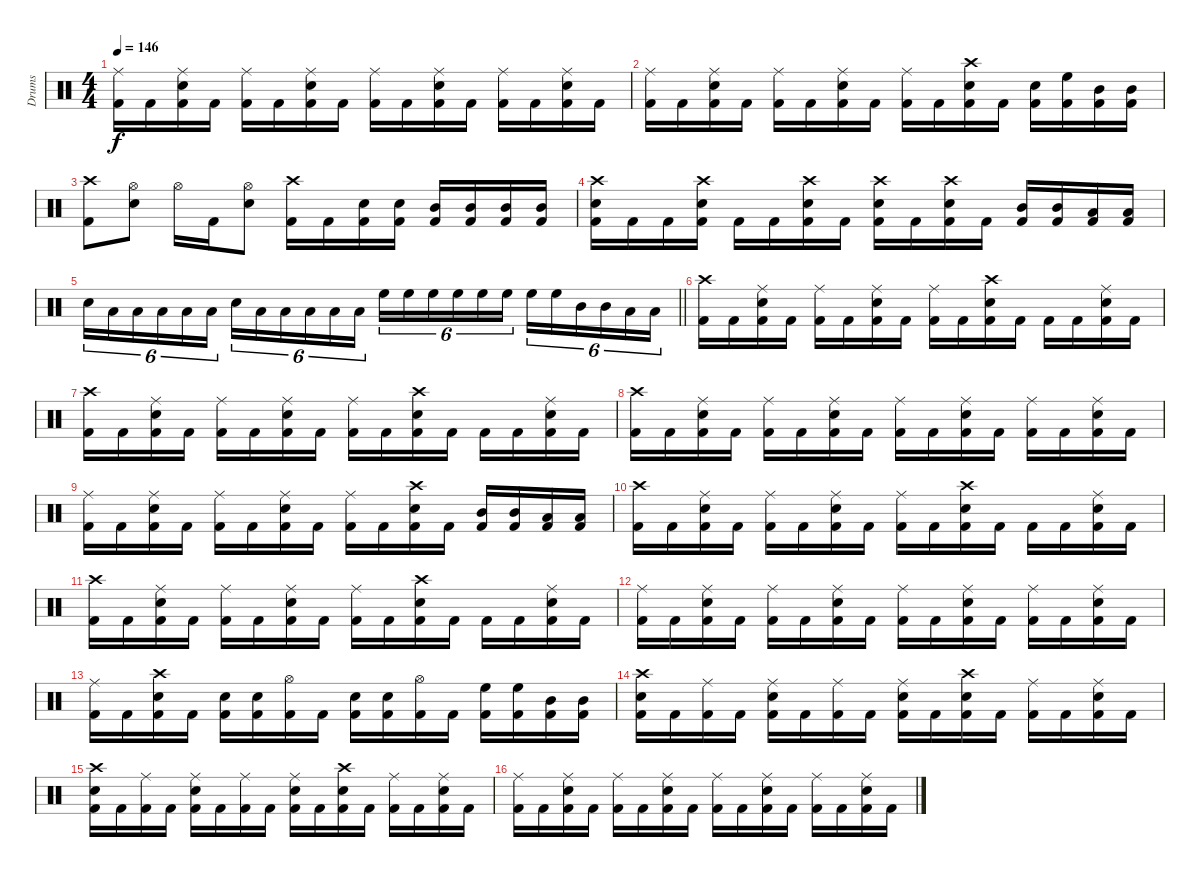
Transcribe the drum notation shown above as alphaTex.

\track ("Drums" "Drums") {instrument percussion}
\staff {score}
\articulation defaults
\ts (4 4)
\tempo 146
\clef neutral
\ks c
("Ride (middle)" "Kick (hit) 2").16{dy f} "Kick (hit) 2".16 ("Ride (middle)" "Snare (hit) 2" "Kick (hit) 2").16 "Kick (hit) 2".16 ("Ride (middle)" "Kick (hit) 2").16 "Kick (hit) 2".16 ("Ride (middle)" "Snare (hit) 2" "Kick (hit) 2").16 "Kick (hit) 2".16 ("Ride (middle)" "Kick (hit) 2").16 "Kick (hit) 2".16 ("Ride (middle)" "Snare (hit) 2" "Kick (hit) 2").16 "Kick (hit) 2".16 ("Ride (middle)" "Kick (hit) 2").16 "Kick (hit) 2".16 ("Ride (middle)" "Snare (hit) 2" "Kick (hit) 2").16 "Kick (hit) 2".16 |
("Ride (middle)" "Kick (hit) 2").16 "Kick (hit) 2".16 ("Ride (middle)" "Snare (hit) 2" "Kick (hit) 2").16 "Kick (hit) 2".16 ("Ride (middle)" "Kick (hit) 2").16 "Kick (hit) 2".16 ("Ride (middle)" "Snare (hit) 2" "Kick (hit) 2").16 "Kick (hit) 2".16 ("Ride (middle)" "Kick (hit) 2").16 "Kick (hit) 2".16 ("Crash high (hit)" "Snare (hit) 2" "Kick (hit) 2").16 "Kick (hit) 2".16 ("Snare (hit) 2" "Kick (hit) 2").16 ("High Floor Tom (hit)" "Kick (hit) 2").16 ("Mid Tom (hit)" "Kick (hit) 2").16 ("Mid Tom (hit)" "Kick (hit) 2").16 |
("Crash high (hit)" "Kick (hit) 2").8 ("Hi-Hat (open)" "Snare (hit) 2").8 "Hi-Hat (open)".16 "Kick (hit) 2".16 ("Hi-Hat (open)" "Snare (hit) 2").8 ("Crash high (hit)" "Kick (hit) 2").16 "Kick (hit) 2".16 ("Snare (hit) 2" "Kick (hit) 2").16 ("Snare (hit) 2" "Kick (hit) 2").16 ("Mid Tom (hit)" "Kick (hit) 2").16 ("Mid Tom (hit)" "Kick (hit) 2").16 ("Mid Tom (hit)" "Kick (hit) 2").16 ("Mid Tom (hit)" "Kick (hit) 2").16 |
("Crash high (hit)" "Snare (hit) 2" "Kick (hit) 2").16 "Kick (hit) 2".16 "Kick (hit) 2".16 ("Crash high (hit)" "Snare (hit) 2" "Kick (hit) 2").16 "Kick (hit) 2".16 "Kick (hit) 2".16 ("Crash high (hit)" "Snare (hit) 2" "Kick (hit) 2").16 "Kick (hit) 2".16 ("Crash high (hit)" "Snare (hit) 2" "Kick (hit) 2").16 "Kick (hit) 2".16 ("Crash high (hit)" "Snare (hit) 2" "Kick (hit) 2").16 "Kick (hit) 2".16 ("Mid Tom (hit)" "Kick (hit) 2").16 ("Mid Tom (hit)" "Kick (hit) 2").16 ("Low Floor Tom (hit)" "Kick (hit) 2").16 ("Low Floor Tom (hit)" "Kick (hit) 2").16 |
\barLineRight lightlight "Snare (hit) 2".16{tu (6 4)} "Low Floor Tom (hit)".16{tu (6 4)} "Low Floor Tom (hit)".16{tu (6 4)} "Low Floor Tom (hit)".16{tu (6 4)} "Low Floor Tom (hit)".16{tu (6 4)} "Low Floor Tom (hit)".16{tu (6 4)} "Snare (hit) 2".16{tu (6 4)} "Low Floor Tom (hit)".16{tu (6 4)} "Low Floor Tom (hit)".16{tu (6 4)} "Low Floor Tom (hit)".16{tu (6 4)} "Low Floor Tom (hit)".16{tu (6 4)} "Low Floor Tom (hit)".16{tu (6 4)} "High Floor Tom (hit)".16{tu (6 4)} "High Floor Tom (hit)".16{tu (6 4)} "High Floor Tom (hit)".16{tu (6 4)} "High Floor Tom (hit)".16{tu (6 4)} "High Floor Tom (hit)".16{tu (6 4)} "High Floor Tom (hit)".16{tu (6 4)} "High Floor Tom (hit)".16{tu (6 4)} "High Floor Tom (hit)".16{tu (6 4)} "Mid Tom (hit)".16{tu (6 4)} "Mid Tom (hit)".16{tu (6 4)} "Low Floor Tom (hit)".16{tu (6 4)} "Low Floor Tom (hit)".16{tu (6 4)}
|
("Crash high (hit)" "Kick (hit) 2").16 "Kick (hit) 2".16 ("Ride (middle)" "Snare (hit) 2" "Kick (hit) 2").16 "Kick (hit) 2".16 ("Ride (middle)" "Kick (hit) 2").16 "Kick (hit) 2".16 ("Ride (middle)" "Snare (hit) 2" "Kick (hit) 2").16 "Kick (hit) 2".16 ("Ride (middle)" "Kick (hit) 2").16 "Kick (hit) 2".16 ("Crash high (hit)" "Snare (hit) 2" "Kick (hit) 2").16 "Kick (hit) 2".16 "Kick (hit) 2".16 "Kick (hit) 2".16 ("Ride (middle)" "Snare (hit) 2" "Kick (hit) 2").16 "Kick (hit) 2".16 |
("Crash high (hit)" "Kick (hit) 2").16 "Kick (hit) 2".16 ("Ride (middle)" "Snare (hit) 2" "Kick (hit) 2").16 "Kick (hit) 2".16 ("Ride (middle)" "Kick (hit) 2").16 "Kick (hit) 2".16 ("Ride (middle)" "Snare (hit) 2" "Kick (hit) 2").16 "Kick (hit) 2".16 ("Ride (middle)" "Kick (hit) 2").16 "Kick (hit) 2".16 ("Crash high (hit)" "Snare (hit) 2" "Kick (hit) 2").16 "Kick (hit) 2".16 "Kick (hit) 2".16 "Kick (hit) 2".16 ("Ride (middle)" "Snare (hit) 2" "Kick (hit) 2").16 "Kick (hit) 2".16 |
("Crash high (hit)" "Kick (hit) 2").16 "Kick (hit) 2".16 ("Ride (middle)" "Snare (hit) 2" "Kick (hit) 2").16 "Kick (hit) 2".16 ("Ride (middle)" "Kick (hit) 2").16 "Kick (hit) 2".16 ("Ride (middle)" "Snare (hit) 2" "Kick (hit) 2").16 "Kick (hit) 2".16 ("Ride (middle)" "Kick (hit) 2").16 "Kick (hit) 2".16 ("Ride (middle)" "Snare (hit) 2" "Kick (hit) 2").16 "Kick (hit) 2".16 ("Ride (middle)" "Kick (hit) 2").16 "Kick (hit) 2".16 ("Ride (middle)" "Snare (hit) 2" "Kick (hit) 2").16 "Kick (hit) 2".16 |
("Ride (middle)" "Kick (hit) 2").16 "Kick (hit) 2".16 ("Ride (middle)" "Snare (hit) 2" "Kick (hit) 2").16 "Kick (hit) 2".16 ("Ride (middle)" "Kick (hit) 2").16 "Kick (hit) 2".16 ("Ride (middle)" "Snare (hit) 2" "Kick (hit) 2").16 "Kick (hit) 2".16 ("Ride (middle)" "Kick (hit) 2").16 "Kick (hit) 2".16 ("Crash high (hit)" "Snare (hit) 2" "Kick (hit) 2").16 "Kick (hit) 2".16 ("Mid Tom (hit)" "Kick (hit) 2").16 ("Mid Tom (hit)" "Kick (hit) 2").16 ("Low Floor Tom (hit)" "Kick (hit) 2").16 ("Low Floor Tom (hit)" "Kick (hit) 2").16 |
("Crash high (hit)" "Kick (hit) 2").16 "Kick (hit) 2".16 ("Ride (middle)" "Snare (hit) 2" "Kick (hit) 2").16 "Kick (hit) 2".16 ("Ride (middle)" "Kick (hit) 2").16 "Kick (hit) 2".16 ("Ride (middle)" "Snare (hit) 2" "Kick (hit) 2").16 "Kick (hit) 2".16 ("Ride (middle)" "Kick (hit) 2").16 "Kick (hit) 2".16 ("Crash high (hit)" "Snare (hit) 2" "Kick (hit) 2").16 "Kick (hit) 2".16 "Kick (hit) 2".16 "Kick (hit) 2".16 ("Ride (middle)" "Snare (hit) 2" "Kick (hit) 2").16 "Kick (hit) 2".16 |
("Crash high (hit)" "Kick (hit) 2").16 "Kick (hit) 2".16 ("Ride (middle)" "Snare (hit) 2" "Kick (hit) 2").16 "Kick (hit) 2".16 ("Ride (middle)" "Kick (hit) 2").16 "Kick (hit) 2".16 ("Ride (middle)" "Snare (hit) 2" "Kick (hit) 2").16 "Kick (hit) 2".16 ("Ride (middle)" "Kick (hit) 2").16 "Kick (hit) 2".16 ("Crash high (hit)" "Snare (hit) 2" "Kick (hit) 2").16 "Kick (hit) 2".16 "Kick (hit) 2".16 "Kick (hit) 2".16 ("Ride (middle)" "Snare (hit) 2" "Kick (hit) 2").16 "Kick (hit) 2".16 |
("Ride (middle)" "Kick (hit) 2").16 "Kick (hit) 2".16 ("Ride (middle)" "Snare (hit) 2" "Kick (hit) 2").16 "Kick (hit) 2".16 ("Ride (middle)" "Kick (hit) 2").16 "Kick (hit) 2".16 ("Ride (middle)" "Snare (hit) 2" "Kick (hit) 2").16 "Kick (hit) 2".16 ("Ride (middle)" "Kick (hit) 2").16 "Kick (hit) 2".16 ("Ride (middle)" "Snare (hit) 2" "Kick (hit) 2").16 "Kick (hit) 2".16 ("Ride (middle)" "Kick (hit) 2").16 "Kick (hit) 2".16 ("Ride (middle)" "Snare (hit) 2" "Kick (hit) 2").16 "Kick (hit) 2".16 |
("Ride (middle)" "Kick (hit) 2").16 "Kick (hit) 2".16 ("Crash high (hit)" "Snare (hit) 2" "Kick (hit) 2").16 "Kick (hit) 2".16 ("Snare (hit) 2" "Kick (hit) 2").16 ("Snare (hit) 2" "Kick (hit) 2").16 ("Hi-Hat (open)" "Kick (hit) 2").16 "Kick (hit) 2".16 ("Snare (hit) 2" "Kick (hit) 2").16 ("Snare (hit) 2" "Kick (hit) 2").16 ("Hi-Hat (open)" "Kick (hit) 2").16 "Kick (hit) 2".16 ("High Floor Tom (hit)" "Kick (hit) 2").16 ("High Floor Tom (hit)" "Kick (hit) 2").16 ("Mid Tom (hit)" "Kick (hit) 2").16 ("Mid Tom (hit)" "Kick (hit) 2").16 |
("Crash high (hit)" "Snare (hit) 2" "Kick (hit) 2").16 "Kick (hit) 2".16 ("Ride (middle)" "Kick (hit) 2").16 "Kick (hit) 2".16 ("Ride (middle)" "Snare (hit) 2" "Kick (hit) 2").16 "Kick (hit) 2".16 ("Ride (middle)" "Kick (hit) 2").16 "Kick (hit) 2".16 ("Ride (middle)" "Snare (hit) 2" "Kick (hit) 2").16 "Kick (hit) 2".16 ("Crash high (hit)" "Snare (hit) 2" "Kick (hit) 2").16 "Kick (hit) 2".16 ("Ride (middle)" "Kick (hit) 2").16 "Kick (hit) 2".16 ("Ride (middle)" "Snare (hit) 2" "Kick (hit) 2").16 "Kick (hit) 2".16 |
("Crash high (hit)" "Snare (hit) 2" "Kick (hit) 2").16 "Kick (hit) 2".16 ("Ride (middle)" "Kick (hit) 2").16 "Kick (hit) 2".16 ("Ride (middle)" "Snare (hit) 2" "Kick (hit) 2").16 "Kick (hit) 2".16 ("Ride (middle)" "Kick (hit) 2").16 "Kick (hit) 2".16 ("Ride (middle)" "Snare (hit) 2" "Kick (hit) 2").16 "Kick (hit) 2".16 ("Crash high (hit)" "Snare (hit) 2" "Kick (hit) 2").16 "Kick (hit) 2".16 ("Ride (middle)" "Kick (hit) 2").16 "Kick (hit) 2".16 ("Ride (middle)" "Snare (hit) 2" "Kick (hit) 2").16 "Kick (hit) 2".16 |
("Ride (middle)" "Kick (hit) 2").16 "Kick (hit) 2".16 ("Ride (middle)" "Snare (hit) 2" "Kick (hit) 2").16 "Kick (hit) 2".16 ("Ride (middle)" "Kick (hit) 2").16 "Kick (hit) 2".16 ("Ride (middle)" "Snare (hit) 2" "Kick (hit) 2").16 "Kick (hit) 2".16 ("Ride (middle)" "Kick (hit) 2").16 "Kick (hit) 2".16 ("Ride (middle)" "Snare (hit) 2" "Kick (hit) 2").16 "Kick (hit) 2".16 ("Ride (middle)" "Kick (hit) 2").16 "Kick (hit) 2".16 ("Ride (middle)" "Snare (hit) 2" "Kick (hit) 2").16 "Kick (hit) 2".16
